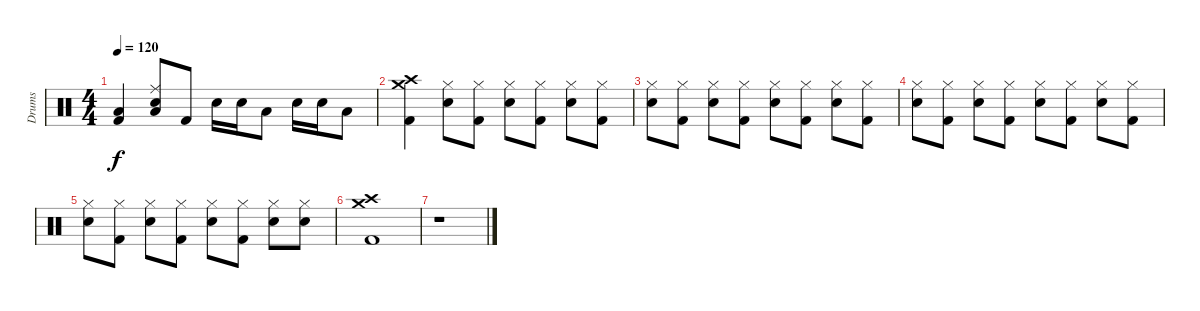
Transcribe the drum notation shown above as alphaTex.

\track ("Drums" "Drums") {instrument percussion}
\staff {score}
\articulation defaults
\ts (4 4)
\tempo 120
\clef neutral
\ks c
("Low Floor Tom (hit)" "Kick (hit) 2").4{dy f} ("Ride (middle)" "Low Floor Tom (hit)" "Snare (hit) 2").8 "Kick (hit) 2".8 "Snare (hit) 2".16 "Snare (hit) 2".16 "Low Tom (hit)".8 "Snare (hit) 2".16 "Snare (hit) 2".16 "Low Tom (hit)".8 |
("Crash medium (hit)" "Crash high (hit)" "Kick (hit) 2").4 ("Hi-Hat (closed)" "Snare (hit) 2").8 ("Hi-Hat (closed)" "Kick (hit) 2").8 ("Hi-Hat (closed)" "Snare (hit) 2").8 ("Hi-Hat (closed)" "Kick (hit) 2").8 ("Hi-Hat (closed)" "Snare (hit) 2").8 ("Hi-Hat (closed)" "Kick (hit) 2").8 |
("Hi-Hat (closed)" "Snare (hit) 2").8 ("Hi-Hat (closed)" "Kick (hit) 2").8 ("Hi-Hat (closed)" "Snare (hit) 2").8 ("Hi-Hat (closed)" "Kick (hit) 2").8 ("Hi-Hat (closed)" "Snare (hit) 2").8 ("Hi-Hat (closed)" "Kick (hit) 2").8 ("Hi-Hat (closed)" "Snare (hit) 2").8 ("Hi-Hat (closed)" "Kick (hit) 2").8 |
("Hi-Hat (closed)" "Snare (hit) 2").8 ("Hi-Hat (closed)" "Kick (hit) 2").8 ("Hi-Hat (closed)" "Snare (hit) 2").8 ("Hi-Hat (closed)" "Kick (hit) 2").8 ("Hi-Hat (closed)" "Snare (hit) 2").8 ("Hi-Hat (closed)" "Kick (hit) 2").8 ("Hi-Hat (closed)" "Snare (hit) 2").8 ("Hi-Hat (closed)" "Kick (hit) 2").8 |
("Hi-Hat (closed)" "Snare (hit) 2").8 ("Hi-Hat (closed)" "Kick (hit) 2").8 ("Hi-Hat (closed)" "Snare (hit) 2").8 ("Hi-Hat (closed)" "Kick (hit) 2").8 ("Hi-Hat (closed)" "Snare (hit) 2").8 ("Hi-Hat (closed)" "Kick (hit) 2").8 ("Hi-Hat (closed)" "Snare (hit) 2").8 ("Hi-Hat (closed)" "Snare (hit) 2").8 |
("Crash medium (hit)" "Crash high (hit)" "Kick (hit) 2").1 |
r.1
